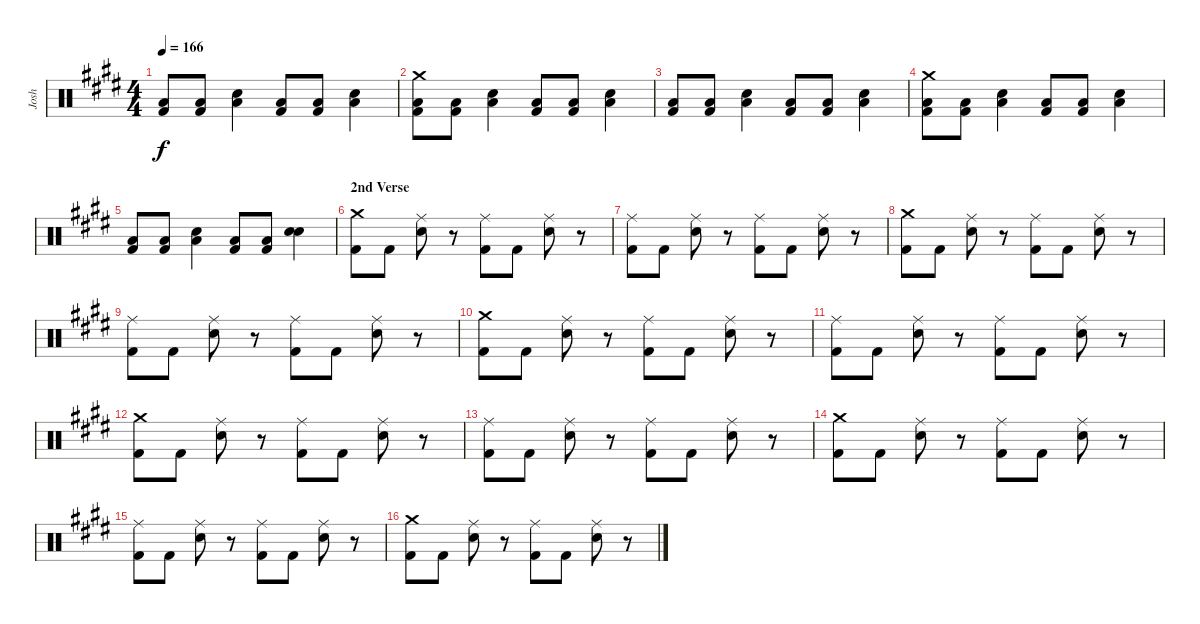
\track ("Josh" "Josh") {instrument percussion}
\staff {score}
\articulation defaults
\ts (4 4)
\tempo 166
\clef neutral
\ks e
("Low Floor Tom (hit)" "Kick (hit) 2").8{dy f} ("Low Floor Tom (hit)" "Kick (hit) 2").8 ("Low Floor Tom (hit)" "Electric Snare (hit)").4 ("Low Floor Tom (hit)" "Kick (hit) 2").8 ("Low Floor Tom (hit)" "Kick (hit) 2").8 ("Low Floor Tom (hit)" "Electric Snare (hit)").4 |
("Crash medium (hit)" "Low Floor Tom (hit)" "Kick (hit) 2").8 ("Low Floor Tom (hit)" "Kick (hit) 2").8 ("Low Floor Tom (hit)" "Electric Snare (hit)").4 ("Low Floor Tom (hit)" "Kick (hit) 2").8 ("Low Floor Tom (hit)" "Kick (hit) 2").8 ("Low Floor Tom (hit)" "Electric Snare (hit)").4 |
("Low Floor Tom (hit)" "Kick (hit) 2").8 ("Low Floor Tom (hit)" "Kick (hit) 2").8 ("Low Floor Tom (hit)" "Electric Snare (hit)").4 ("Low Floor Tom (hit)" "Kick (hit) 2").8 ("Low Floor Tom (hit)" "Kick (hit) 2").8 ("Low Floor Tom (hit)" "Electric Snare (hit)").4 |
("Crash medium (hit)" "Low Floor Tom (hit)" "Kick (hit) 2").8 ("Low Floor Tom (hit)" "Kick (hit) 2").8 ("Low Floor Tom (hit)" "Electric Snare (hit)").4 ("Low Floor Tom (hit)" "Kick (hit) 2").8 ("Low Floor Tom (hit)" "Kick (hit) 2").8 ("Low Floor Tom (hit)" "Electric Snare (hit)").4 |
("Low Floor Tom (hit)" "Kick (hit) 2").8 ("Low Floor Tom (hit)" "Kick (hit) 2").8 ("Low Floor Tom (hit)" "Electric Snare (hit)").4 ("Low Floor Tom (hit)" "Kick (hit) 2").8 ("Low Floor Tom (hit)" "Kick (hit) 2").8 ("Electric Snare (hit)" "Electric Snare (hit)").4{bu 240} |
\section ("" "2nd Verse")
("Crash medium (hit)" "Kick (hit) 2").8 "Kick (hit) 2".8 ("Ride (middle)" "Electric Snare (hit)").8 r.8 ("Ride (middle)" "Kick (hit) 2").8 "Kick (hit) 2".8 ("Ride (middle)" "Electric Snare (hit)").8 r.8 |
("Ride (middle)" "Kick (hit) 2").8 "Kick (hit) 2".8 ("Ride (middle)" "Electric Snare (hit)").8 r.8 ("Ride (middle)" "Kick (hit) 2").8 "Kick (hit) 2".8 ("Ride (middle)" "Electric Snare (hit)").8 r.8 |
("Crash medium (hit)" "Kick (hit) 2").8 "Kick (hit) 2".8 ("Ride (middle)" "Electric Snare (hit)").8 r.8 ("Ride (middle)" "Kick (hit) 2").8 "Kick (hit) 2".8 ("Ride (middle)" "Electric Snare (hit)").8 r.8 |
("Ride (middle)" "Kick (hit) 2").8 "Kick (hit) 2".8 ("Ride (middle)" "Electric Snare (hit)").8 r.8 ("Ride (middle)" "Kick (hit) 2").8 "Kick (hit) 2".8 ("Ride (middle)" "Electric Snare (hit)").8 r.8 |
("Crash medium (hit)" "Kick (hit) 2").8 "Kick (hit) 2".8 ("Ride (middle)" "Electric Snare (hit)").8 r.8 ("Ride (middle)" "Kick (hit) 2").8 "Kick (hit) 2".8 ("Ride (middle)" "Electric Snare (hit)").8 r.8 |
("Ride (middle)" "Kick (hit) 2").8 "Kick (hit) 2".8 ("Ride (middle)" "Electric Snare (hit)").8 r.8 ("Ride (middle)" "Kick (hit) 2").8 "Kick (hit) 2".8 ("Ride (middle)" "Electric Snare (hit)").8 r.8 |
("Crash medium (hit)" "Kick (hit) 2").8 "Kick (hit) 2".8 ("Ride (middle)" "Electric Snare (hit)").8 r.8 ("Ride (middle)" "Kick (hit) 2").8 "Kick (hit) 2".8 ("Ride (middle)" "Electric Snare (hit)").8 r.8 |
("Ride (middle)" "Kick (hit) 2").8 "Kick (hit) 2".8 ("Ride (middle)" "Electric Snare (hit)").8 r.8 ("Ride (middle)" "Kick (hit) 2").8 "Kick (hit) 2".8 ("Ride (middle)" "Electric Snare (hit)").8 r.8 |
("Crash medium (hit)" "Kick (hit) 2").8 "Kick (hit) 2".8 ("Ride (middle)" "Electric Snare (hit)").8 r.8 ("Ride (middle)" "Kick (hit) 2").8 "Kick (hit) 2".8 ("Ride (middle)" "Electric Snare (hit)").8 r.8 |
("Ride (middle)" "Kick (hit) 2").8 "Kick (hit) 2".8 ("Ride (middle)" "Electric Snare (hit)").8 r.8 ("Ride (middle)" "Kick (hit) 2").8 "Kick (hit) 2".8 ("Ride (middle)" "Electric Snare (hit)").8 r.8 |
("Crash medium (hit)" "Kick (hit) 2").8 "Kick (hit) 2".8 ("Ride (middle)" "Electric Snare (hit)").8 r.8 ("Ride (middle)" "Kick (hit) 2").8 "Kick (hit) 2".8 ("Ride (middle)" "Electric Snare (hit)").8 r.8
